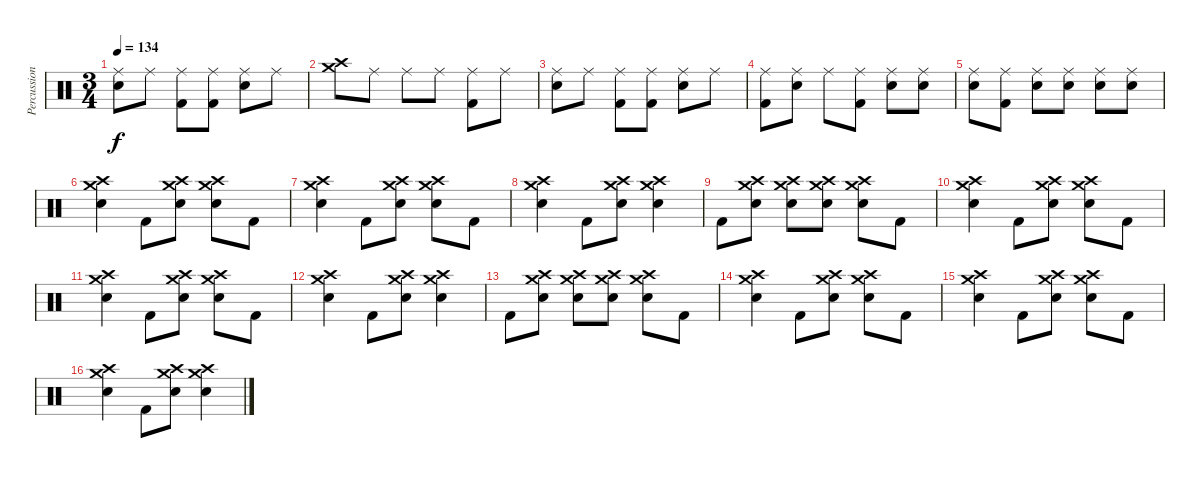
\track ("Percussion" "Percussion") {instrument percussion}
\staff {score}
\articulation defaults
\ts (3 4)
\tempo 134
\clef neutral
\ks c
("Ride (middle)" "Snare (hit) 2").8{dy f} "Ride (middle)".8 ("Ride (middle)" "Kick (hit) 2").8 ("Ride (middle)" "Kick (hit) 2").8 ("Ride (middle)" "Snare (hit) 2").8 "Ride (middle)".8 |
("Crash high (hit)" "Crash medium (hit)").8 "Ride (middle)".8 "Ride (middle)".8 "Ride (middle)".8 ("Ride (middle)" "Kick (hit) 2").8 "Ride (middle)".8 |
("Ride (middle)" "Snare (hit) 2").8 "Ride (middle)".8 ("Ride (middle)" "Kick (hit) 2").8 ("Ride (middle)" "Kick (hit) 2").8 ("Ride (middle)" "Snare (hit) 2").8 "Ride (middle)".8 |
("Ride (middle)" "Kick (hit) 2").8 ("Ride (middle)" "Snare (hit) 2").8 "Ride (middle)".8 ("Ride (middle)" "Kick (hit) 2").8 ("Ride (middle)" "Snare (hit) 2").8 ("Ride (middle)" "Snare (hit) 2").8 |
("Ride (middle)" "Snare (hit) 2").8 ("Ride (middle)" "Kick (hit) 2").8 ("Ride (middle)" "Snare (hit) 2").8 ("Ride (middle)" "Snare (hit) 2").8 ("Ride (middle)" "Snare (hit) 2").8 ("Ride (middle)" "Snare (hit) 2").8 |
("Crash medium (hit)" "Crash high (hit)" "Snare (hit) 2").4{volume 14} "Kick (hit) 2".8 ("Crash medium (hit)" "Crash high (hit)" "Snare (hit) 2").8 ("Crash medium (hit)" "Crash high (hit)" "Snare (hit) 2").8 "Kick (hit) 2".8 |
("Crash medium (hit)" "Crash high (hit)" "Snare (hit) 2").4 "Kick (hit) 2".8 ("Crash medium (hit)" "Crash high (hit)" "Snare (hit) 2").8 ("Crash medium (hit)" "Crash high (hit)" "Snare (hit) 2").8 "Kick (hit) 2".8 |
("Crash medium (hit)" "Crash high (hit)" "Snare (hit) 2").4 "Kick (hit) 2".8 ("Crash medium (hit)" "Crash high (hit)" "Snare (hit) 2").8 ("Crash medium (hit)" "Crash high (hit)" "Snare (hit) 2").4 |
"Kick (hit) 2".8 ("Crash medium (hit)" "Crash high (hit)" "Snare (hit) 2").8 ("Crash medium (hit)" "Crash high (hit)" "Snare (hit) 2").8 ("Crash medium (hit)" "Crash high (hit)" "Snare (hit) 2").8 ("Crash medium (hit)" "Crash high (hit)" "Snare (hit) 2").8 "Kick (hit) 2".8 |
("Crash medium (hit)" "Crash high (hit)" "Snare (hit) 2").4 "Kick (hit) 2".8 ("Crash medium (hit)" "Crash high (hit)" "Snare (hit) 2").8 ("Crash medium (hit)" "Crash high (hit)" "Snare (hit) 2").8 "Kick (hit) 2".8 |
("Crash medium (hit)" "Crash high (hit)" "Snare (hit) 2").4 "Kick (hit) 2".8 ("Crash medium (hit)" "Crash high (hit)" "Snare (hit) 2").8 ("Crash medium (hit)" "Crash high (hit)" "Snare (hit) 2").8 "Kick (hit) 2".8 |
("Crash medium (hit)" "Crash high (hit)" "Snare (hit) 2").4 "Kick (hit) 2".8 ("Crash medium (hit)" "Crash high (hit)" "Snare (hit) 2").8 ("Crash medium (hit)" "Crash high (hit)" "Snare (hit) 2").4 |
"Kick (hit) 2".8 ("Crash medium (hit)" "Crash high (hit)" "Snare (hit) 2").8 ("Crash medium (hit)" "Crash high (hit)" "Snare (hit) 2").8 ("Crash medium (hit)" "Crash high (hit)" "Snare (hit) 2").8 ("Crash medium (hit)" "Crash high (hit)" "Snare (hit) 2").8 "Kick (hit) 2".8 |
("Crash medium (hit)" "Crash high (hit)" "Snare (hit) 2").4 "Kick (hit) 2".8 ("Crash medium (hit)" "Crash high (hit)" "Snare (hit) 2").8 ("Crash medium (hit)" "Crash high (hit)" "Snare (hit) 2").8 "Kick (hit) 2".8 |
("Crash medium (hit)" "Crash high (hit)" "Snare (hit) 2").4 "Kick (hit) 2".8 ("Crash medium (hit)" "Crash high (hit)" "Snare (hit) 2").8 ("Crash medium (hit)" "Crash high (hit)" "Snare (hit) 2").8 "Kick (hit) 2".8 |
("Crash medium (hit)" "Crash high (hit)" "Snare (hit) 2").4 "Kick (hit) 2".8 ("Crash medium (hit)" "Crash high (hit)" "Snare (hit) 2").8 ("Crash medium (hit)" "Crash high (hit)" "Snare (hit) 2").4
